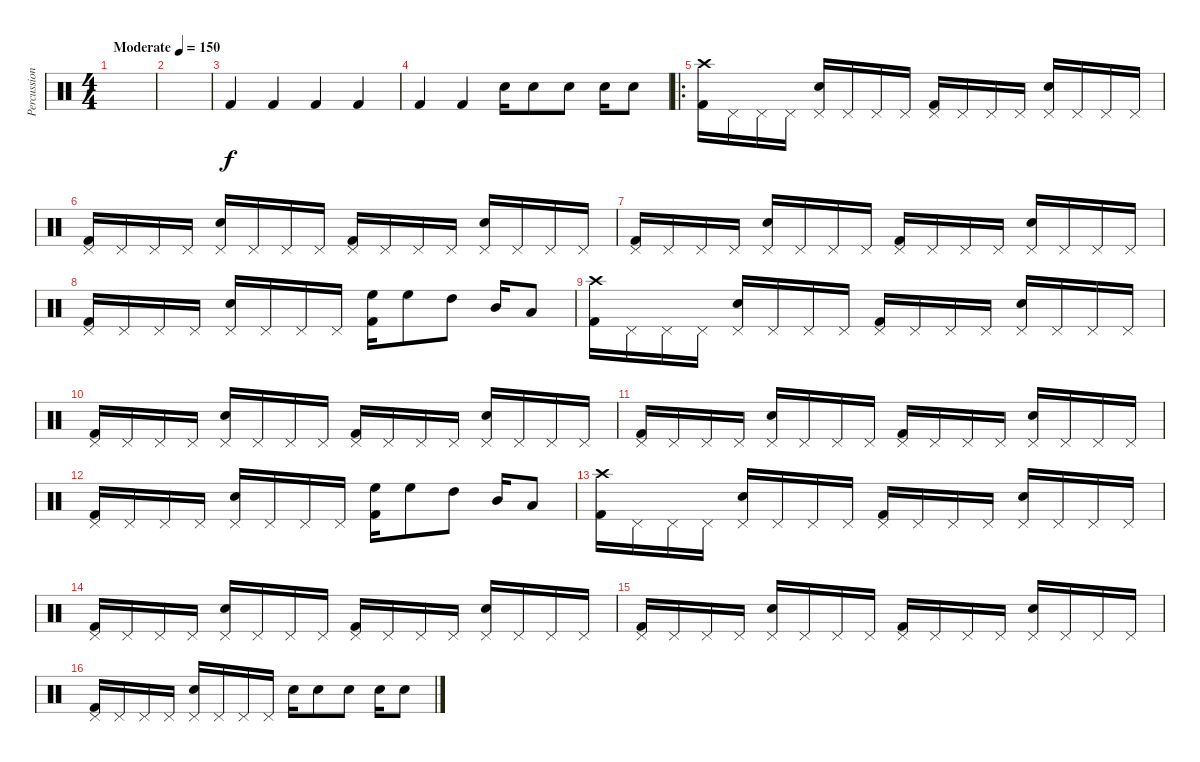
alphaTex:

\track ("Percussion" "Percussion") {instrument percussion}
\staff {score}
\articulation defaults
\ts (4 4)
\tempo (150 "Moderate")
\clef neutral
\ks c
|
|
"Kick (hit) 2".4 "Kick (hit) 2".4 "Kick (hit) 2".4 "Kick (hit) 2".4 |
"Kick (hit) 2".4 "Kick (hit) 2".4 "Snare (hit) 2".16 "Snare (hit) 2".8 "Snare (hit) 2".8 "Snare (hit) 2".16 "Snare (hit) 2".8 |
\ro
("Crash high (hit)" "Kick (hit) 2").16 "Pedal Hi-Hat (hit)".16 "Pedal Hi-Hat (hit)".16 "Pedal Hi-Hat (hit)".16 ("Pedal Hi-Hat (hit)" "Snare (hit) 2").16 "Pedal Hi-Hat (hit)".16 "Pedal Hi-Hat (hit)".16 "Pedal Hi-Hat (hit)".16 ("Pedal Hi-Hat (hit)" "Kick (hit) 2").16 "Pedal Hi-Hat (hit)".16 "Pedal Hi-Hat (hit)".16 "Pedal Hi-Hat (hit)".16 ("Pedal Hi-Hat (hit)" "Snare (hit) 2").16 "Pedal Hi-Hat (hit)".16 "Pedal Hi-Hat (hit)".16 "Pedal Hi-Hat (hit)".16 |
("Pedal Hi-Hat (hit)" "Kick (hit) 2").16 "Pedal Hi-Hat (hit)".16 "Pedal Hi-Hat (hit)".16 "Pedal Hi-Hat (hit)".16 ("Pedal Hi-Hat (hit)" "Snare (hit) 2").16 "Pedal Hi-Hat (hit)".16 "Pedal Hi-Hat (hit)".16 "Pedal Hi-Hat (hit)".16 ("Pedal Hi-Hat (hit)" "Kick (hit) 2").16 "Pedal Hi-Hat (hit)".16 "Pedal Hi-Hat (hit)".16 "Pedal Hi-Hat (hit)".16 ("Pedal Hi-Hat (hit)" "Snare (hit) 2").16 "Pedal Hi-Hat (hit)".16 "Pedal Hi-Hat (hit)".16 "Pedal Hi-Hat (hit)".16 |
("Pedal Hi-Hat (hit)" "Kick (hit) 2").16 "Pedal Hi-Hat (hit)".16 "Pedal Hi-Hat (hit)".16 "Pedal Hi-Hat (hit)".16 ("Pedal Hi-Hat (hit)" "Snare (hit) 2").16 "Pedal Hi-Hat (hit)".16 "Pedal Hi-Hat (hit)".16 "Pedal Hi-Hat (hit)".16 ("Pedal Hi-Hat (hit)" "Kick (hit) 2").16 "Pedal Hi-Hat (hit)".16 "Pedal Hi-Hat (hit)".16 "Pedal Hi-Hat (hit)".16 ("Pedal Hi-Hat (hit)" "Snare (hit) 2").16 "Pedal Hi-Hat (hit)".16 "Pedal Hi-Hat (hit)".16 "Pedal Hi-Hat (hit)".16 |
("Pedal Hi-Hat (hit)" "Kick (hit) 2").16 "Pedal Hi-Hat (hit)".16 "Pedal Hi-Hat (hit)".16 "Pedal Hi-Hat (hit)".16 ("Pedal Hi-Hat (hit)" "Snare (hit) 2").16 "Pedal Hi-Hat (hit)".16 "Pedal Hi-Hat (hit)".16 "Pedal Hi-Hat (hit)".16 ("High Floor Tom (hit)" "Kick (hit) 2").16 "High Floor Tom (hit)".8 "High Tom (hit)".8 "Mid Tom (hit)".16 "Low Tom (hit)".8 |
("Crash high (hit)" "Kick (hit) 2").16 "Pedal Hi-Hat (hit)".16 "Pedal Hi-Hat (hit)".16 "Pedal Hi-Hat (hit)".16 ("Pedal Hi-Hat (hit)" "Snare (hit) 2").16 "Pedal Hi-Hat (hit)".16 "Pedal Hi-Hat (hit)".16 "Pedal Hi-Hat (hit)".16 ("Pedal Hi-Hat (hit)" "Kick (hit) 2").16 "Pedal Hi-Hat (hit)".16 "Pedal Hi-Hat (hit)".16 "Pedal Hi-Hat (hit)".16 ("Pedal Hi-Hat (hit)" "Snare (hit) 2").16 "Pedal Hi-Hat (hit)".16 "Pedal Hi-Hat (hit)".16 "Pedal Hi-Hat (hit)".16 |
("Pedal Hi-Hat (hit)" "Kick (hit) 2").16 "Pedal Hi-Hat (hit)".16 "Pedal Hi-Hat (hit)".16 "Pedal Hi-Hat (hit)".16 ("Pedal Hi-Hat (hit)" "Snare (hit) 2").16 "Pedal Hi-Hat (hit)".16 "Pedal Hi-Hat (hit)".16 "Pedal Hi-Hat (hit)".16 ("Pedal Hi-Hat (hit)" "Kick (hit) 2").16 "Pedal Hi-Hat (hit)".16 "Pedal Hi-Hat (hit)".16 "Pedal Hi-Hat (hit)".16 ("Pedal Hi-Hat (hit)" "Snare (hit) 2").16 "Pedal Hi-Hat (hit)".16 "Pedal Hi-Hat (hit)".16 "Pedal Hi-Hat (hit)".16 |
("Pedal Hi-Hat (hit)" "Kick (hit) 2").16 "Pedal Hi-Hat (hit)".16 "Pedal Hi-Hat (hit)".16 "Pedal Hi-Hat (hit)".16 ("Pedal Hi-Hat (hit)" "Snare (hit) 2").16 "Pedal Hi-Hat (hit)".16 "Pedal Hi-Hat (hit)".16 "Pedal Hi-Hat (hit)".16 ("Pedal Hi-Hat (hit)" "Kick (hit) 2").16 "Pedal Hi-Hat (hit)".16 "Pedal Hi-Hat (hit)".16 "Pedal Hi-Hat (hit)".16 ("Pedal Hi-Hat (hit)" "Snare (hit) 2").16 "Pedal Hi-Hat (hit)".16 "Pedal Hi-Hat (hit)".16 "Pedal Hi-Hat (hit)".16 |
("Pedal Hi-Hat (hit)" "Kick (hit) 2").16 "Pedal Hi-Hat (hit)".16 "Pedal Hi-Hat (hit)".16 "Pedal Hi-Hat (hit)".16 ("Pedal Hi-Hat (hit)" "Snare (hit) 2").16 "Pedal Hi-Hat (hit)".16 "Pedal Hi-Hat (hit)".16 "Pedal Hi-Hat (hit)".16 ("High Floor Tom (hit)" "Kick (hit) 2").16 "High Floor Tom (hit)".8 "High Tom (hit)".8 "Mid Tom (hit)".16 "Low Tom (hit)".8 |
("Crash high (hit)" "Kick (hit) 2").16 "Pedal Hi-Hat (hit)".16 "Pedal Hi-Hat (hit)".16 "Pedal Hi-Hat (hit)".16 ("Pedal Hi-Hat (hit)" "Snare (hit) 2").16 "Pedal Hi-Hat (hit)".16 "Pedal Hi-Hat (hit)".16 "Pedal Hi-Hat (hit)".16 ("Pedal Hi-Hat (hit)" "Kick (hit) 2").16 "Pedal Hi-Hat (hit)".16 "Pedal Hi-Hat (hit)".16 "Pedal Hi-Hat (hit)".16 ("Pedal Hi-Hat (hit)" "Snare (hit) 2").16 "Pedal Hi-Hat (hit)".16 "Pedal Hi-Hat (hit)".16 "Pedal Hi-Hat (hit)".16 |
("Pedal Hi-Hat (hit)" "Kick (hit) 2").16 "Pedal Hi-Hat (hit)".16 "Pedal Hi-Hat (hit)".16 "Pedal Hi-Hat (hit)".16 ("Pedal Hi-Hat (hit)" "Snare (hit) 2").16 "Pedal Hi-Hat (hit)".16 "Pedal Hi-Hat (hit)".16 "Pedal Hi-Hat (hit)".16 ("Pedal Hi-Hat (hit)" "Kick (hit) 2").16 "Pedal Hi-Hat (hit)".16 "Pedal Hi-Hat (hit)".16 "Pedal Hi-Hat (hit)".16 ("Pedal Hi-Hat (hit)" "Snare (hit) 2").16 "Pedal Hi-Hat (hit)".16 "Pedal Hi-Hat (hit)".16 "Pedal Hi-Hat (hit)".16 |
("Pedal Hi-Hat (hit)" "Kick (hit) 2").16 "Pedal Hi-Hat (hit)".16 "Pedal Hi-Hat (hit)".16 "Pedal Hi-Hat (hit)".16 ("Pedal Hi-Hat (hit)" "Snare (hit) 2").16 "Pedal Hi-Hat (hit)".16 "Pedal Hi-Hat (hit)".16 "Pedal Hi-Hat (hit)".16 ("Pedal Hi-Hat (hit)" "Kick (hit) 2").16 "Pedal Hi-Hat (hit)".16 "Pedal Hi-Hat (hit)".16 "Pedal Hi-Hat (hit)".16 ("Pedal Hi-Hat (hit)" "Snare (hit) 2").16 "Pedal Hi-Hat (hit)".16 "Pedal Hi-Hat (hit)".16 "Pedal Hi-Hat (hit)".16 |
("Pedal Hi-Hat (hit)" "Kick (hit) 2").16 "Pedal Hi-Hat (hit)".16 "Pedal Hi-Hat (hit)".16 "Pedal Hi-Hat (hit)".16 ("Pedal Hi-Hat (hit)" "Snare (hit) 2").16 "Pedal Hi-Hat (hit)".16 "Pedal Hi-Hat (hit)".16 "Pedal Hi-Hat (hit)".16 "Snare (hit) 2".16 "Snare (hit) 2".8 "Snare (hit) 2".8 "Snare (hit) 2".16 "Snare (hit) 2".8
